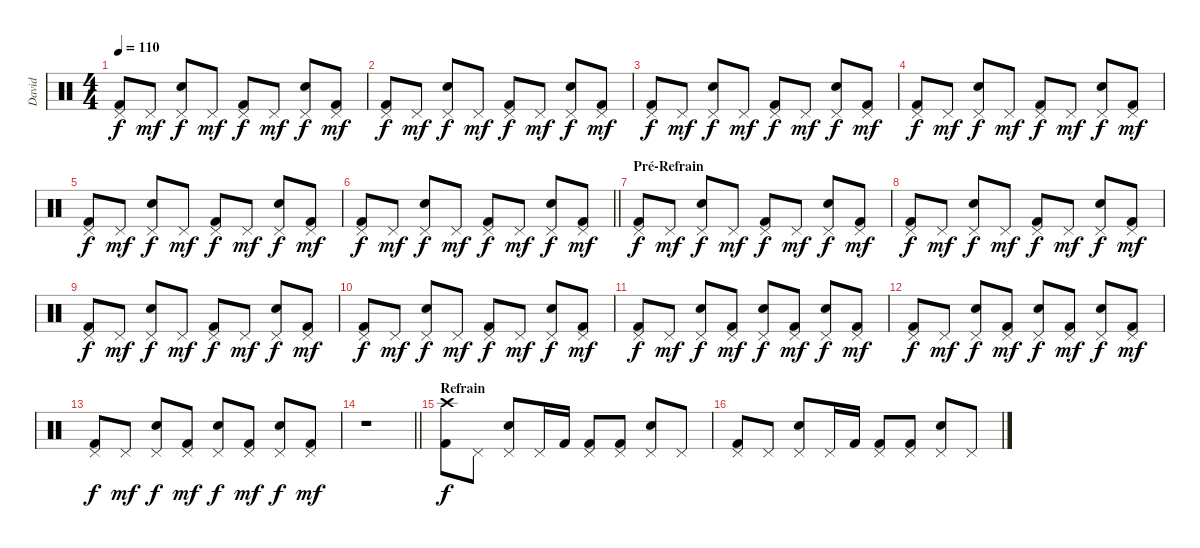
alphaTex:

\track ("David" "David") {instrument percussion}
\staff {score}
\articulation defaults
\ts (4 4)
\tempo 110
\clef neutral
\ks c
("Pedal Hi-Hat (hit)" "Kick (hit) 2").8{dy f} "Pedal Hi-Hat (hit)".8{dy mf} ("Pedal Hi-Hat (hit)" "Electric Snare (hit)").8{dy f} "Pedal Hi-Hat (hit)".8{dy mf} ("Pedal Hi-Hat (hit)" "Kick (hit) 2").8{dy f} "Pedal Hi-Hat (hit)".8{dy mf} ("Pedal Hi-Hat (hit)" "Electric Snare (hit)").8{dy f} ("Pedal Hi-Hat (hit)" "Kick (hit) 2").8{dy mf} |
("Pedal Hi-Hat (hit)" "Kick (hit) 2").8{dy f} "Pedal Hi-Hat (hit)".8{dy mf} ("Pedal Hi-Hat (hit)" "Electric Snare (hit)").8{dy f} "Pedal Hi-Hat (hit)".8{dy mf} ("Pedal Hi-Hat (hit)" "Kick (hit) 2").8{dy f} "Pedal Hi-Hat (hit)".8{dy mf} ("Pedal Hi-Hat (hit)" "Electric Snare (hit)").8{dy f} ("Pedal Hi-Hat (hit)" "Kick (hit) 2").8{dy mf} |
("Pedal Hi-Hat (hit)" "Kick (hit) 2").8{dy f} "Pedal Hi-Hat (hit)".8{dy mf} ("Pedal Hi-Hat (hit)" "Electric Snare (hit)").8{dy f} "Pedal Hi-Hat (hit)".8{dy mf} ("Pedal Hi-Hat (hit)" "Kick (hit) 2").8{dy f} "Pedal Hi-Hat (hit)".8{dy mf} ("Pedal Hi-Hat (hit)" "Electric Snare (hit)").8{dy f} ("Pedal Hi-Hat (hit)" "Kick (hit) 2").8{dy mf} |
("Pedal Hi-Hat (hit)" "Kick (hit) 2").8{dy f} "Pedal Hi-Hat (hit)".8{dy mf} ("Pedal Hi-Hat (hit)" "Electric Snare (hit)").8{dy f} "Pedal Hi-Hat (hit)".8{dy mf} ("Pedal Hi-Hat (hit)" "Kick (hit) 2").8{dy f} "Pedal Hi-Hat (hit)".8{dy mf} ("Pedal Hi-Hat (hit)" "Electric Snare (hit)").8{dy f} ("Pedal Hi-Hat (hit)" "Kick (hit) 2").8{dy mf} |
("Pedal Hi-Hat (hit)" "Kick (hit) 2").8{dy f} "Pedal Hi-Hat (hit)".8{dy mf} ("Pedal Hi-Hat (hit)" "Electric Snare (hit)").8{dy f} "Pedal Hi-Hat (hit)".8{dy mf} ("Pedal Hi-Hat (hit)" "Kick (hit) 2").8{dy f} "Pedal Hi-Hat (hit)".8{dy mf} ("Pedal Hi-Hat (hit)" "Electric Snare (hit)").8{dy f} ("Pedal Hi-Hat (hit)" "Kick (hit) 2").8{dy mf} |
\barLineRight lightlight
("Pedal Hi-Hat (hit)" "Kick (hit) 2").8{dy f} "Pedal Hi-Hat (hit)".8{dy mf} ("Pedal Hi-Hat (hit)" "Electric Snare (hit)").8{dy f} "Pedal Hi-Hat (hit)".8{dy mf} ("Pedal Hi-Hat (hit)" "Kick (hit) 2").8{dy f} "Pedal Hi-Hat (hit)".8{dy mf} ("Pedal Hi-Hat (hit)" "Electric Snare (hit)").8{dy f} ("Pedal Hi-Hat (hit)" "Kick (hit) 2").8{dy mf} |
\section ("" "Pré-Refrain")
("Pedal Hi-Hat (hit)" "Kick (hit) 2").8{dy f} "Pedal Hi-Hat (hit)".8{dy mf} ("Pedal Hi-Hat (hit)" "Electric Snare (hit)").8{dy f} "Pedal Hi-Hat (hit)".8{dy mf} ("Pedal Hi-Hat (hit)" "Kick (hit) 2").8{dy f} "Pedal Hi-Hat (hit)".8{dy mf} ("Pedal Hi-Hat (hit)" "Electric Snare (hit)").8{dy f} ("Pedal Hi-Hat (hit)" "Kick (hit) 2").8{dy mf} |
("Pedal Hi-Hat (hit)" "Kick (hit) 2").8{dy f} "Pedal Hi-Hat (hit)".8{dy mf} ("Pedal Hi-Hat (hit)" "Electric Snare (hit)").8{dy f} "Pedal Hi-Hat (hit)".8{dy mf} ("Pedal Hi-Hat (hit)" "Kick (hit) 2").8{dy f} "Pedal Hi-Hat (hit)".8{dy mf} ("Pedal Hi-Hat (hit)" "Electric Snare (hit)").8{dy f} ("Pedal Hi-Hat (hit)" "Kick (hit) 2").8{dy mf} |
("Pedal Hi-Hat (hit)" "Kick (hit) 2").8{dy f} "Pedal Hi-Hat (hit)".8{dy mf} ("Pedal Hi-Hat (hit)" "Electric Snare (hit)").8{dy f} "Pedal Hi-Hat (hit)".8{dy mf} ("Pedal Hi-Hat (hit)" "Kick (hit) 2").8{dy f} "Pedal Hi-Hat (hit)".8{dy mf} ("Pedal Hi-Hat (hit)" "Electric Snare (hit)").8{dy f} ("Pedal Hi-Hat (hit)" "Kick (hit) 2").8{dy mf} |
("Pedal Hi-Hat (hit)" "Kick (hit) 2").8{dy f} "Pedal Hi-Hat (hit)".8{dy mf} ("Pedal Hi-Hat (hit)" "Electric Snare (hit)").8{dy f} "Pedal Hi-Hat (hit)".8{dy mf} ("Pedal Hi-Hat (hit)" "Kick (hit) 2").8{dy f} "Pedal Hi-Hat (hit)".8{dy mf} ("Pedal Hi-Hat (hit)" "Electric Snare (hit)").8{dy f} ("Pedal Hi-Hat (hit)" "Kick (hit) 2").8{dy mf} |
("Pedal Hi-Hat (hit)" "Kick (hit) 2").8{dy f} "Pedal Hi-Hat (hit)".8{dy mf} ("Pedal Hi-Hat (hit)" "Electric Snare (hit)").8{dy f} ("Pedal Hi-Hat (hit)" "Kick (hit) 2").8{dy mf} ("Pedal Hi-Hat (hit)" "Electric Snare (hit)").8{dy f} ("Pedal Hi-Hat (hit)" "Kick (hit) 2").8{dy mf} ("Pedal Hi-Hat (hit)" "Electric Snare (hit)").8{dy f} ("Pedal Hi-Hat (hit)" "Kick (hit) 2").8{dy mf} |
("Pedal Hi-Hat (hit)" "Kick (hit) 2").8{dy f} "Pedal Hi-Hat (hit)".8{dy mf} ("Pedal Hi-Hat (hit)" "Electric Snare (hit)").8{dy f} ("Pedal Hi-Hat (hit)" "Kick (hit) 2").8{dy mf} ("Pedal Hi-Hat (hit)" "Electric Snare (hit)").8{dy f} ("Pedal Hi-Hat (hit)" "Kick (hit) 2").8{dy mf} ("Pedal Hi-Hat (hit)" "Electric Snare (hit)").8{dy f} ("Pedal Hi-Hat (hit)" "Kick (hit) 2").8{dy mf} |
("Pedal Hi-Hat (hit)" "Kick (hit) 2").8{dy f} "Pedal Hi-Hat (hit)".8{dy mf} ("Pedal Hi-Hat (hit)" "Electric Snare (hit)").8{dy f} ("Pedal Hi-Hat (hit)" "Kick (hit) 2").8{dy mf} ("Pedal Hi-Hat (hit)" "Electric Snare (hit)").8{dy f} ("Pedal Hi-Hat (hit)" "Kick (hit) 2").8{dy mf} ("Pedal Hi-Hat (hit)" "Electric Snare (hit)").8{dy f} ("Pedal Hi-Hat (hit)" "Kick (hit) 2").8{dy mf} |
\barLineRight lightlight
r.1 |
\section ("" "Refrain")
("Crash high (hit)" "Kick (hit) 2").8{dy f} "Pedal Hi-Hat (hit)".8 ("Pedal Hi-Hat (hit)" "Electric Snare (hit)").8 "Pedal Hi-Hat (hit)".16 "Kick (hit) 2".16 ("Pedal Hi-Hat (hit)" "Kick (hit) 2").8 ("Pedal Hi-Hat (hit)" "Kick (hit) 2").8 ("Pedal Hi-Hat (hit)" "Electric Snare (hit)").8 "Pedal Hi-Hat (hit)".8 |
("Pedal Hi-Hat (hit)" "Kick (hit) 2").8 "Pedal Hi-Hat (hit)".8 ("Pedal Hi-Hat (hit)" "Electric Snare (hit)").8 "Pedal Hi-Hat (hit)".16 "Kick (hit) 2".16 ("Pedal Hi-Hat (hit)" "Kick (hit) 2").8 ("Pedal Hi-Hat (hit)" "Kick (hit) 2").8 ("Pedal Hi-Hat (hit)" "Electric Snare (hit)").8 "Pedal Hi-Hat (hit)".8
